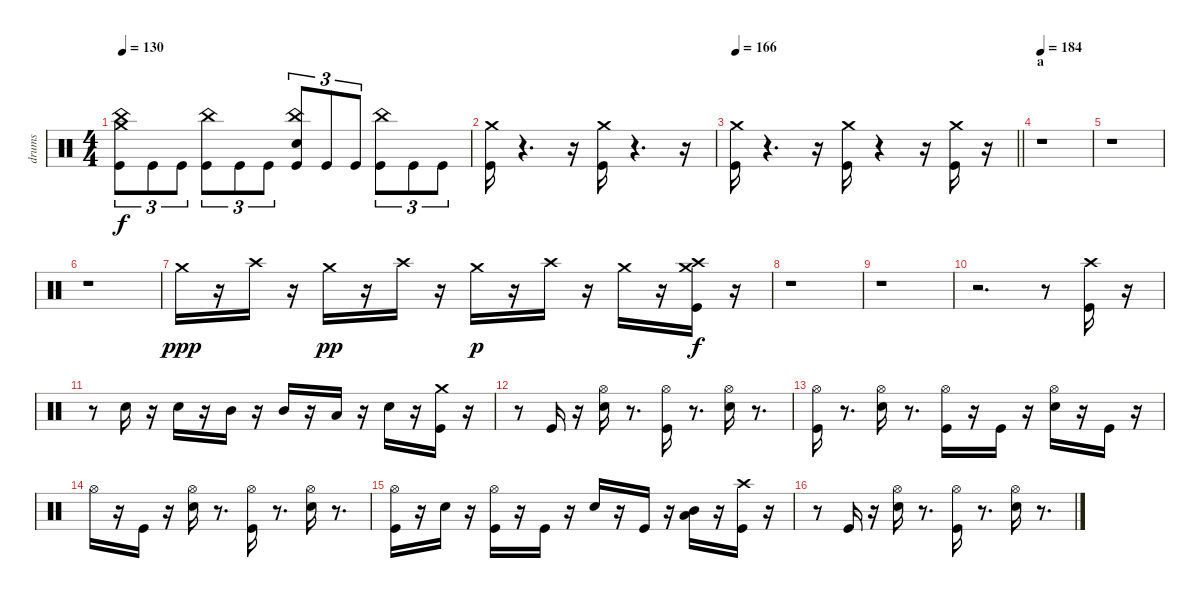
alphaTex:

\track ("drums" "drums") {instrument percussion}
\staff {score}
\articulation defaults
\ts (4 4)
\tempo 130
\clef neutral
\ks c
("Kick (hit)" "China (hit)" "Crash medium (hit)").8{tu (3 2) dy f} "Kick (hit)".8{tu (3 2)} "Kick (hit)".8{tu (3 2)} ("Kick (hit)" "China (hit)").8{tu (3 2)} "Kick (hit)".8{tu (3 2)} "Kick (hit)".8{tu (3 2)} ("Kick (hit)" "Snare (hit) 2" "China (hit)").8{tu (3 2)} "Kick (hit)".8{tu (3 2)} "Kick (hit)".8{tu (3 2)} ("Kick (hit)" "China (hit)").8{tu (3 2)} "Kick (hit)".8{tu (3 2)} "Kick (hit)".8{tu (3 2)} |
("Kick (hit)" "Crash medium (hit)").16 r.4{d} r.16 ("Kick (hit)" "Crash medium (hit)").16 r.4{d} r.16 |
\tempo 166
\barLineRight lightlight
("Kick (hit)" "Crash medium (hit)").16 r.4{d} r.16 ("Kick (hit)" "Crash medium (hit)").16 r.4 r.16 ("Kick (hit)" "Crash medium (hit)").16 r.16 |
\section ("" "a")
\tempo 184
r.1 |
r.1 |
r.1 |
"Crash medium (hit)".16{dy ppp} r.16 "Crash high (hit)".16 r.16 "Crash medium (hit)".16{dy pp} r.16 "Crash high (hit)".16 r.16 "Crash medium (hit)".16{dy p} r.16 "Crash high (hit)".16 r.16 "Crash medium (hit)".16 r.16 ("Kick (hit)" "Crash high (hit)" "Crash medium (hit)").16{dy f} r.16 |
r.1 |
r.1 |
r.2{d} r.8 ("Kick (hit)" "Crash high (hit)").16 r.16 |
r.8 "Snare (hit) 2".16 r.16 "Snare (hit) 2".16 r.16 "Mid Tom (hit)".16 r.16 "Mid Tom (hit)".16 r.16 "Low Tom (hit)".16 r.16 "Snare (hit) 2".16 r.16 ("Kick (hit)" "Crash medium (hit)").16 r.16 |
r.8 "Kick (hit)".16 r.16 ("Snare (hit) 2" "Hi-Hat (open)").16 r.8{d} ("Kick (hit)" "Hi-Hat (open)").16 r.8{d} ("Snare (hit) 2" "Hi-Hat (open)").16 r.8{d} |
("Kick (hit)" "Hi-Hat (open)").16 r.8{d} ("Snare (hit) 2" "Hi-Hat (open)").16 r.8{d} ("Kick (hit)" "Hi-Hat (open)").16 r.16 "Kick (hit)".16 r.16 ("Snare (hit) 2" "Hi-Hat (open)").16 r.16 "Kick (hit)".16 r.16 |
"Hi-Hat (open)".16 r.16 "Kick (hit)".16 r.16 ("Snare (hit) 2" "Hi-Hat (open)").16 r.8{d} ("Kick (hit)" "Hi-Hat (open)").16 r.8{d} ("Snare (hit) 2" "Hi-Hat (open)").16 r.8{d} |
("Kick (hit)" "Hi-Hat (open)").16 r.16 "Snare (hit) 2".16 r.16 ("Kick (hit)" "Hi-Hat (open)").16 r.16 "Kick (hit)".16 r.16 "Snare (hit) 2".16 r.16 "Kick (hit)".16 r.16 ("Low Tom (hit)" "Mid Tom (hit)").16 r.16 ("Kick (hit)" "Crash high (hit)").16 r.16 |
r.8 "Kick (hit)".16 r.16 ("Snare (hit) 2" "Hi-Hat (open)").16 r.8{d} ("Kick (hit)" "Hi-Hat (open)").16 r.8{d} ("Snare (hit) 2" "Hi-Hat (open)").16 r.8{d}
